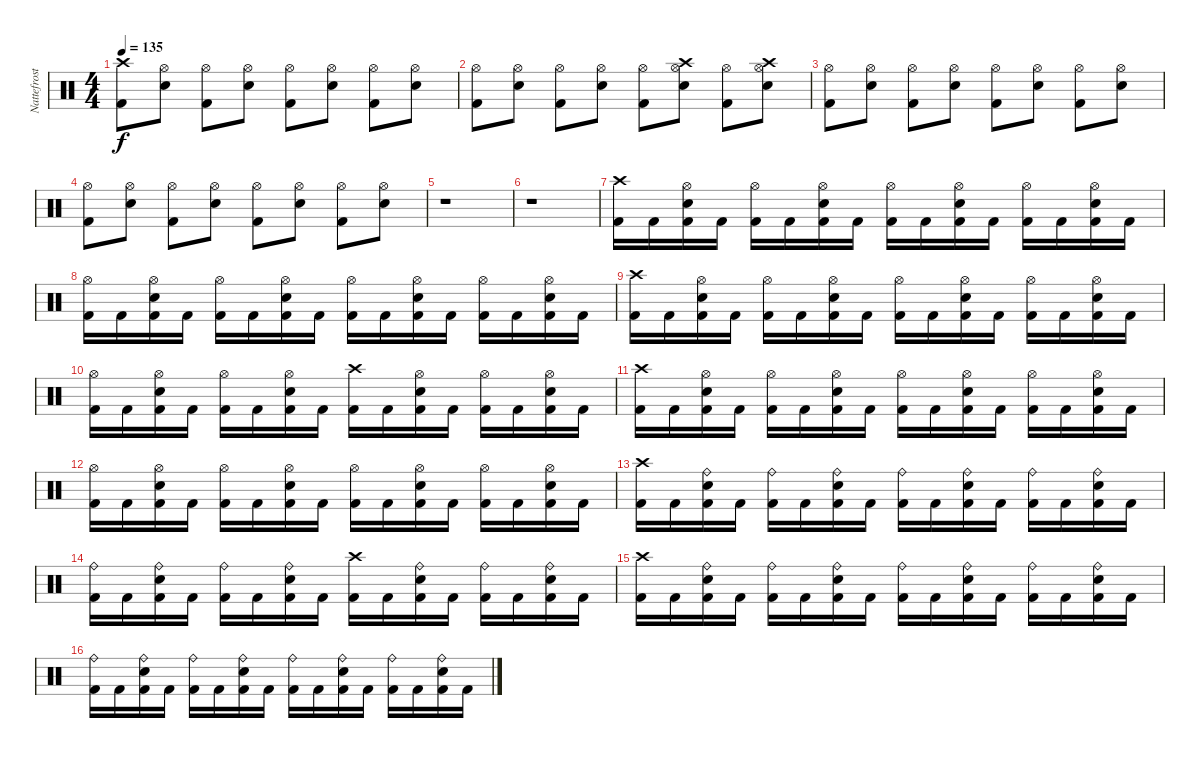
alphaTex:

\track ("Nattefrost" "Nattefrost") {instrument percussion}
\staff {score}
\articulation defaults
\ts (4 4)
\tempo 135
\clef neutral
\ks c
("Crash high (hit)" "Kick (hit) 2").8{dy f} ("Hi-Hat (open)" "Snare (hit) 2").8 ("Hi-Hat (open)" "Kick (hit) 2").8 ("Hi-Hat (open)" "Snare (hit) 2").8 ("Hi-Hat (open)" "Kick (hit) 2").8 ("Hi-Hat (open)" "Snare (hit) 2").8 ("Hi-Hat (open)" "Kick (hit) 2").8 ("Hi-Hat (open)" "Snare (hit) 2").8 |
("Hi-Hat (open)" "Kick (hit) 2").8 ("Hi-Hat (open)" "Snare (hit) 2").8 ("Hi-Hat (open)" "Kick (hit) 2").8 ("Hi-Hat (open)" "Snare (hit) 2").8 ("Hi-Hat (open)" "Kick (hit) 2").8 ("Crash high (hit)" "Hi-Hat (open)" "Snare (hit) 2").8 ("Hi-Hat (open)" "Kick (hit) 2").8 ("Crash high (hit)" "Hi-Hat (open)" "Snare (hit) 2").8 |
("Hi-Hat (open)" "Kick (hit) 2").8 ("Hi-Hat (open)" "Snare (hit) 2").8 ("Hi-Hat (open)" "Kick (hit) 2").8 ("Hi-Hat (open)" "Snare (hit) 2").8 ("Hi-Hat (open)" "Kick (hit) 2").8 ("Hi-Hat (open)" "Snare (hit) 2").8 ("Hi-Hat (open)" "Kick (hit) 2").8 ("Hi-Hat (open)" "Snare (hit) 2").8 |
("Hi-Hat (open)" "Kick (hit) 2").8 ("Hi-Hat (open)" "Snare (hit) 2").8 ("Hi-Hat (open)" "Kick (hit) 2").8 ("Hi-Hat (open)" "Snare (hit) 2").8 ("Hi-Hat (open)" "Kick (hit) 2").8 ("Hi-Hat (open)" "Snare (hit) 2").8 ("Hi-Hat (open)" "Kick (hit) 2").8 ("Hi-Hat (open)" "Snare (hit) 2").8 |
r.1 |
r.1 |
("Crash high (hit)" "Kick (hit) 2").16 "Kick (hit) 2".16 ("Hi-Hat (open)" "Snare (hit) 2" "Kick (hit) 2").16 "Kick (hit) 2".16 ("Hi-Hat (open)" "Kick (hit) 2").16 "Kick (hit) 2".16 ("Hi-Hat (open)" "Snare (hit) 2" "Kick (hit) 2").16 "Kick (hit) 2".16 ("Hi-Hat (open)" "Kick (hit) 2").16 "Kick (hit) 2".16 ("Hi-Hat (open)" "Snare (hit) 2" "Kick (hit) 2").16 "Kick (hit) 2".16 ("Hi-Hat (open)" "Kick (hit) 2").16 "Kick (hit) 2".16 ("Hi-Hat (open)" "Snare (hit) 2" "Kick (hit) 2").16 "Kick (hit) 2".16 |
("Hi-Hat (open)" "Kick (hit) 2").16 "Kick (hit) 2".16 ("Hi-Hat (open)" "Snare (hit) 2" "Kick (hit) 2").16 "Kick (hit) 2".16 ("Hi-Hat (open)" "Kick (hit) 2").16 "Kick (hit) 2".16 ("Hi-Hat (open)" "Snare (hit) 2" "Kick (hit) 2").16 "Kick (hit) 2".16 ("Hi-Hat (open)" "Kick (hit) 2").16 "Kick (hit) 2".16 ("Hi-Hat (open)" "Snare (hit) 2" "Kick (hit) 2").16 "Kick (hit) 2".16 ("Hi-Hat (open)" "Kick (hit) 2").16 "Kick (hit) 2".16 ("Hi-Hat (open)" "Snare (hit) 2" "Kick (hit) 2").16 "Kick (hit) 2".16 |
("Crash high (hit)" "Kick (hit) 2").16 "Kick (hit) 2".16 ("Hi-Hat (open)" "Snare (hit) 2" "Kick (hit) 2").16 "Kick (hit) 2".16 ("Hi-Hat (open)" "Kick (hit) 2").16 "Kick (hit) 2".16 ("Hi-Hat (open)" "Snare (hit) 2" "Kick (hit) 2").16 "Kick (hit) 2".16 ("Hi-Hat (open)" "Kick (hit) 2").16 "Kick (hit) 2".16 ("Hi-Hat (open)" "Snare (hit) 2" "Kick (hit) 2").16 "Kick (hit) 2".16 ("Hi-Hat (open)" "Kick (hit) 2").16 "Kick (hit) 2".16 ("Hi-Hat (open)" "Snare (hit) 2" "Kick (hit) 2").16 "Kick (hit) 2".16 |
("Hi-Hat (open)" "Kick (hit) 2").16 "Kick (hit) 2".16 ("Hi-Hat (open)" "Snare (hit) 2" "Kick (hit) 2").16 "Kick (hit) 2".16 ("Hi-Hat (open)" "Kick (hit) 2").16 "Kick (hit) 2".16 ("Hi-Hat (open)" "Snare (hit) 2" "Kick (hit) 2").16 "Kick (hit) 2".16 ("Crash high (hit)" "Kick (hit) 2").16 "Kick (hit) 2".16 ("Hi-Hat (open)" "Snare (hit) 2" "Kick (hit) 2").16 "Kick (hit) 2".16 ("Hi-Hat (open)" "Kick (hit) 2").16 "Kick (hit) 2".16 ("Hi-Hat (open)" "Snare (hit) 2" "Kick (hit) 2").16 "Kick (hit) 2".16 |
("Crash high (hit)" "Kick (hit) 2").16 "Kick (hit) 2".16 ("Hi-Hat (open)" "Snare (hit) 2" "Kick (hit) 2").16 "Kick (hit) 2".16 ("Hi-Hat (open)" "Kick (hit) 2").16 "Kick (hit) 2".16 ("Hi-Hat (open)" "Snare (hit) 2" "Kick (hit) 2").16 "Kick (hit) 2".16 ("Hi-Hat (open)" "Kick (hit) 2").16 "Kick (hit) 2".16 ("Hi-Hat (open)" "Snare (hit) 2" "Kick (hit) 2").16 "Kick (hit) 2".16 ("Hi-Hat (open)" "Kick (hit) 2").16 "Kick (hit) 2".16 ("Hi-Hat (open)" "Snare (hit) 2" "Kick (hit) 2").16 "Kick (hit) 2".16 |
("Hi-Hat (open)" "Kick (hit) 2").16 "Kick (hit) 2".16 ("Hi-Hat (open)" "Snare (hit) 2" "Kick (hit) 2").16 "Kick (hit) 2".16 ("Hi-Hat (open)" "Kick (hit) 2").16 "Kick (hit) 2".16 ("Hi-Hat (open)" "Snare (hit) 2" "Kick (hit) 2").16 "Kick (hit) 2".16 ("Hi-Hat (open)" "Kick (hit) 2").16 "Kick (hit) 2".16 ("Hi-Hat (open)" "Snare (hit) 2" "Kick (hit) 2").16 "Kick (hit) 2".16 ("Hi-Hat (open)" "Kick (hit) 2").16 "Kick (hit) 2".16 ("Hi-Hat (open)" "Snare (hit) 2" "Kick (hit) 2").16 "Kick (hit) 2".16 |
("Crash high (hit)" "Kick (hit) 2").16 "Kick (hit) 2".16 ("Ride (bell)" "Snare (hit) 2" "Kick (hit) 2").16 "Kick (hit) 2".16 ("Ride (bell)" "Kick (hit) 2").16 "Kick (hit) 2".16 ("Ride (bell)" "Snare (hit) 2" "Kick (hit) 2").16 "Kick (hit) 2".16 ("Ride (bell)" "Kick (hit) 2").16 "Kick (hit) 2".16 ("Ride (bell)" "Snare (hit) 2" "Kick (hit) 2").16 "Kick (hit) 2".16 ("Ride (bell)" "Kick (hit) 2").16 "Kick (hit) 2".16 ("Ride (bell)" "Snare (hit) 2" "Kick (hit) 2").16 "Kick (hit) 2".16 |
("Ride (bell)" "Kick (hit) 2").16 "Kick (hit) 2".16 ("Ride (bell)" "Snare (hit) 2" "Kick (hit) 2").16 "Kick (hit) 2".16 ("Ride (bell)" "Kick (hit) 2").16 "Kick (hit) 2".16 ("Ride (bell)" "Snare (hit) 2" "Kick (hit) 2").16 "Kick (hit) 2".16 ("Crash high (hit)" "Kick (hit) 2").16 "Kick (hit) 2".16 ("Ride (bell)" "Snare (hit) 2" "Kick (hit) 2").16 "Kick (hit) 2".16 ("Ride (bell)" "Kick (hit) 2").16 "Kick (hit) 2".16 ("Ride (bell)" "Snare (hit) 2" "Kick (hit) 2").16 "Kick (hit) 2".16 |
("Crash high (hit)" "Kick (hit) 2").16 "Kick (hit) 2".16 ("Ride (bell)" "Snare (hit) 2" "Kick (hit) 2").16 "Kick (hit) 2".16 ("Ride (bell)" "Kick (hit) 2").16 "Kick (hit) 2".16 ("Ride (bell)" "Snare (hit) 2" "Kick (hit) 2").16 "Kick (hit) 2".16 ("Ride (bell)" "Kick (hit) 2").16 "Kick (hit) 2".16 ("Ride (bell)" "Snare (hit) 2" "Kick (hit) 2").16 "Kick (hit) 2".16 ("Ride (bell)" "Kick (hit) 2").16 "Kick (hit) 2".16 ("Ride (bell)" "Snare (hit) 2" "Kick (hit) 2").16 "Kick (hit) 2".16 |
("Ride (bell)" "Kick (hit) 2").16 "Kick (hit) 2".16 ("Ride (bell)" "Snare (hit) 2" "Kick (hit) 2").16 "Kick (hit) 2".16 ("Ride (bell)" "Kick (hit) 2").16 "Kick (hit) 2".16 ("Ride (bell)" "Snare (hit) 2" "Kick (hit) 2").16 "Kick (hit) 2".16 ("Ride (bell)" "Kick (hit) 2").16 "Kick (hit) 2".16 ("Ride (bell)" "Snare (hit) 2" "Kick (hit) 2").16 "Kick (hit) 2".16 ("Ride (bell)" "Kick (hit) 2").16 "Kick (hit) 2".16 ("Ride (bell)" "Snare (hit) 2" "Kick (hit) 2").16 "Kick (hit) 2".16
